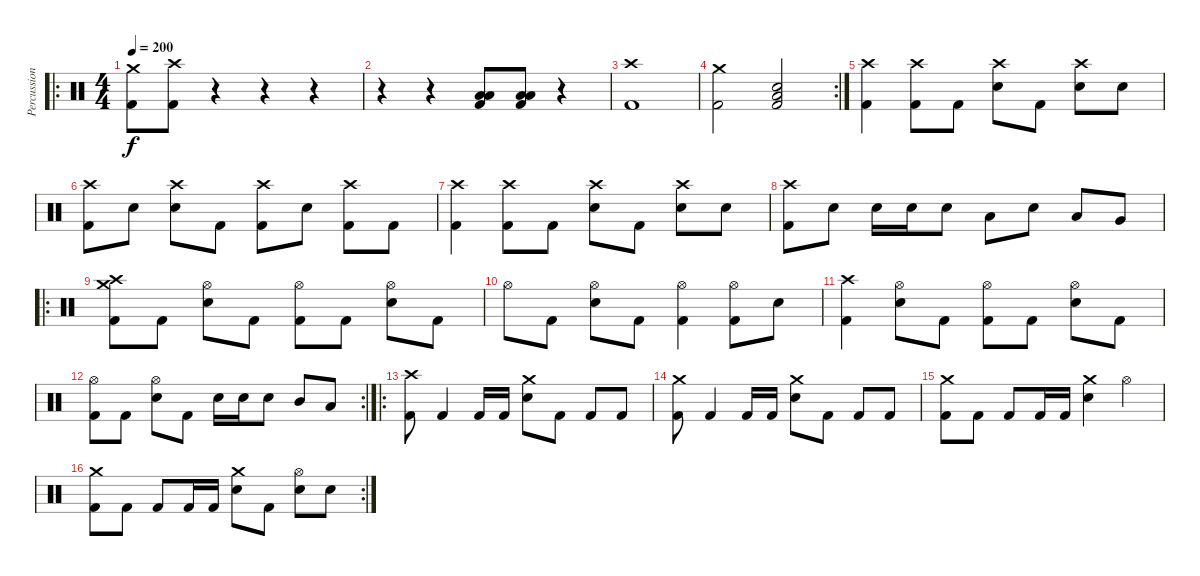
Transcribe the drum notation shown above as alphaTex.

\track ("Percussions" "Percussion") {instrument percussion}
\staff {score}
\articulation defaults
\ro
\ts (4 4)
\tempo 200
\clef neutral
\ks c
("Crash medium (hit)" "Kick (hit) 2").8{dy f} ("Crash high (hit)" "Kick (hit) 2").8 r.4 r.4 r.4 |
r.4 r.4 ("Low Floor Tom (hit)" "Low Floor Tom (hit)" "Kick (hit) 2").8 ("Low Floor Tom (hit)" "Low Floor Tom (hit)" "Kick (hit) 2").8 r.4 |
("Crash high (hit)" "Kick (hit) 2").1 |
\rc 2
("Crash medium (hit)" "Kick (hit) 2").2 ("Low Floor Tom (hit)" "Snare (hit) 2" "Kick (hit) 2").2 |
("Crash high (hit)" "Kick (hit) 2").4 ("Crash high (hit)" "Kick (hit) 2").8 "Kick (hit) 2".8 ("Crash high (hit)" "Snare (hit) 2").8 "Kick (hit) 2".8 ("Crash high (hit)" "Snare (hit) 2").8 "Snare (hit) 2".8 |
("Crash high (hit)" "Kick (hit) 2").8 "Snare (hit) 2".8 ("Crash high (hit)" "Snare (hit) 2").8 "Kick (hit) 2".8 ("Crash high (hit)" "Kick (hit) 2").8 "Snare (hit) 2".8 ("Crash high (hit)" "Kick (hit) 2").8 "Kick (hit) 2".8 |
("Crash high (hit)" "Kick (hit) 2").4 ("Crash high (hit)" "Kick (hit) 2").8 "Kick (hit) 2".8 ("Crash high (hit)" "Snare (hit) 2").8 "Kick (hit) 2".8 ("Crash high (hit)" "Snare (hit) 2").8 "Snare (hit) 2".8 |
("Crash high (hit)" "Kick (hit) 2").8 "Snare (hit) 2".8 "Snare (hit) 2".16 "Snare (hit) 2".16 "Snare (hit) 2".8 "Low Tom (hit)".8 "Snare (hit) 2".8 "Low Tom (hit)".8 "Very Low Tom (hit)".8 |
\ro
("Crash high (hit)" "Crash medium (hit)" "Kick (hit) 2").8 "Kick (hit) 2".8 ("Hi-Hat (open)" "Snare (hit) 2").8 "Kick (hit) 2".8 ("Hi-Hat (open)" "Kick (hit) 2").8 "Kick (hit) 2".8 ("Hi-Hat (open)" "Snare (hit) 2").8 "Kick (hit) 2".8 |
"Hi-Hat (open)".8 "Kick (hit) 2".8 ("Hi-Hat (open)" "Snare (hit) 2").8 "Kick (hit) 2".8 ("Hi-Hat (open)" "Kick (hit) 2").4 ("Hi-Hat (open)" "Kick (hit) 2").8 "Snare (hit) 2".8 |
("Crash high (hit)" "Kick (hit) 2").4 ("Hi-Hat (open)" "Snare (hit) 2").8 "Kick (hit) 2".8 ("Hi-Hat (open)" "Kick (hit) 2").8 "Kick (hit) 2".8 ("Hi-Hat (open)" "Snare (hit) 2").8 "Kick (hit) 2".8 |
\rc 2
("Hi-Hat (open)" "Kick (hit) 2").8 "Kick (hit) 2".8 ("Hi-Hat (open)" "Snare (hit) 2").8 "Kick (hit) 2".8 "Snare (hit) 2".16 "Snare (hit) 2".16 "Snare (hit) 2".8 "Mid Tom (hit)".8 "Low Tom (hit)".8 |
\ro
("Crash high (hit)" "Kick (hit) 2").8 "Kick (hit) 2".4 "Kick (hit) 2".16 "Kick (hit) 2".16 ("Crash medium (hit)" "Snare (hit) 2").8 "Kick (hit) 2".8 "Kick (hit) 2".8 "Kick (hit) 2".8 |
("Crash medium (hit)" "Kick (hit) 2").8 "Kick (hit) 2".4 "Kick (hit) 2".16 "Kick (hit) 2".16 ("Crash medium (hit)" "Snare (hit) 2").8 "Kick (hit) 2".8 "Kick (hit) 2".8 "Kick (hit) 2".8 |
("Crash medium (hit)" "Kick (hit) 2").8 "Kick (hit) 2".8 "Kick (hit) 2".8 "Kick (hit) 2".16 "Kick (hit) 2".16 ("Crash medium (hit)" "Snare (hit) 2").4 "Hi-Hat (open)".4 |
\rc 2
("Crash medium (hit)" "Kick (hit) 2").8 "Kick (hit) 2".8 "Kick (hit) 2".8 "Kick (hit) 2".16 "Kick (hit) 2".16 ("Crash medium (hit)" "Snare (hit) 2").8 "Kick (hit) 2".8 ("Hi-Hat (open)" "Snare (hit) 2").8 "Snare (hit) 2".8
